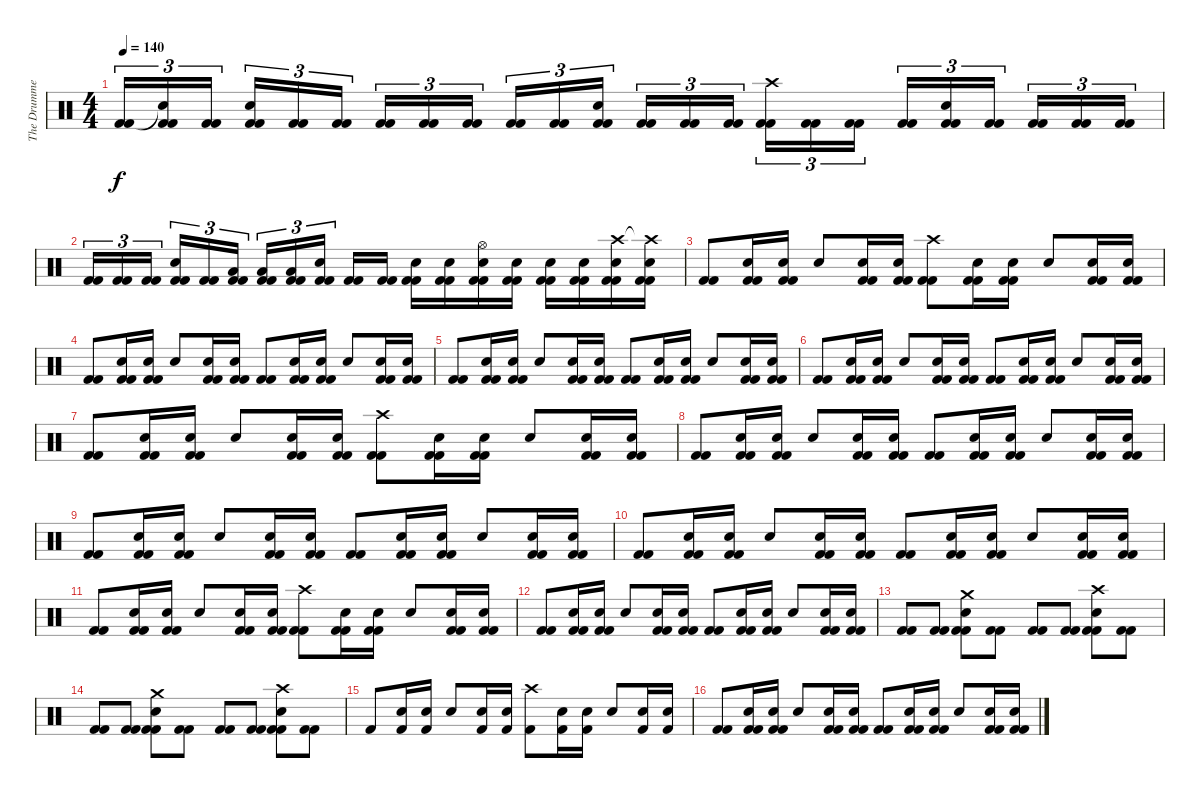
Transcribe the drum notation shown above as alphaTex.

\track ("The Drummer" "The Drumme") {instrument percussion}
\staff {score}
\articulation defaults
\ts (4 4)
\tempo 140
\clef neutral
\ks c
("Kick (hit) 2" "Kick (hit) 2").16{tu (3 2) dy f} ("Snare (hit)"{t} "Kick (hit) 2" "Kick (hit) 2").16{tu (3 2)} ("Kick (hit) 2" "Kick (hit) 2").16{tu (3 2)} ("Electric Snare (hit)" "Kick (hit) 2" "Kick (hit) 2").16{tu (3 2)} ("Kick (hit) 2" "Kick (hit) 2").16{tu (3 2)} ("Kick (hit) 2" "Kick (hit) 2").16{tu (3 2)} ("Kick (hit) 2" "Kick (hit) 2").16{tu (3 2)} ("Kick (hit) 2" "Kick (hit) 2").16{tu (3 2)} ("Kick (hit) 2" "Kick (hit) 2").16{tu (3 2)} ("Kick (hit) 2" "Kick (hit) 2").16{tu (3 2)} ("Kick (hit) 2" "Kick (hit) 2").16{tu (3 2)} ("Electric Snare (hit)" "Kick (hit) 2" "Kick (hit) 2").16{tu (3 2)} ("Kick (hit) 2" "Kick (hit) 2").16{tu (3 2)} ("Kick (hit) 2" "Kick (hit) 2").16{tu (3 2)} ("Kick (hit) 2" "Kick (hit) 2").16{tu (3 2)} ("Crash high (hit)" "Kick (hit) 2" "Kick (hit) 2").16{tu (3 2)} ("Kick (hit) 2" "Kick (hit) 2").16{tu (3 2)} ("Kick (hit) 2" "Kick (hit) 2").16{tu (3 2)} ("Kick (hit) 2" "Kick (hit) 2").16{tu (3 2)} ("Electric Snare (hit)" "Kick (hit) 2" "Kick (hit) 2").16{tu (3 2)} ("Kick (hit) 2" "Kick (hit) 2").16{tu (3 2)} ("Kick (hit) 2" "Kick (hit) 2").16{tu (3 2)} ("Kick (hit) 2" "Kick (hit) 2").16{tu (3 2)} ("Kick (hit) 2" "Kick (hit) 2").16{tu (3 2)} |
("Kick (hit) 2" "Kick (hit) 2").16{tu (3 2)} ("Kick (hit) 2" "Kick (hit) 2").16{tu (3 2)} ("Kick (hit) 2" "Kick (hit) 2").16{tu (3 2)} ("Electric Snare (hit)" "Kick (hit) 2" "Kick (hit) 2").16{tu (3 2)} ("Kick (hit) 2" "Kick (hit) 2").16{tu (3 2)} ("Low Tom (hit)" "Kick (hit) 2" "Kick (hit) 2").16{tu (3 2)} ("Low Tom (hit)" "Kick (hit) 2" "Kick (hit) 2").16{tu (3 2)} ("Low Tom (hit)" "Kick (hit) 2" "Kick (hit) 2").16{tu (3 2)} ("Electric Snare (hit)" "Kick (hit) 2" "Kick (hit) 2").16{tu (3 2)} ("Kick (hit) 2" "Kick (hit) 2").16 ("Kick (hit) 2" "Kick (hit) 2").16 ("Electric Snare (hit)" "Kick (hit) 2" "Kick (hit) 2").16 ("Electric Snare (hit)" "Kick (hit) 2" "Kick (hit) 2").16 ("Hi-Hat (open)" "Electric Snare (hit)" "Kick (hit) 2" "Kick (hit) 2").16 ("Electric Snare (hit)" "Kick (hit) 2" "Kick (hit) 2").16 ("Electric Snare (hit)" "Kick (hit) 2" "Kick (hit) 2").16 ("Electric Snare (hit)" "Kick (hit) 2" "Kick (hit) 2").16 ("Crash high (hit)" "Electric Snare (hit)" "Kick (hit) 2" "Kick (hit) 2").16 ("Crash high (hit)"{t} "Electric Snare (hit)" "Kick (hit) 2" "Kick (hit) 2").16 |
("Kick (hit) 2" "Kick (hit) 2").8 ("Snare (hit) 2" "Kick (hit) 2" "Kick (hit) 2").16 ("Snare (hit) 2" "Kick (hit) 2" "Kick (hit) 2").16 "Snare (hit) 2".8 ("Snare (hit) 2" "Kick (hit) 2" "Kick (hit) 2").16 ("Snare (hit) 2" "Kick (hit) 2" "Kick (hit) 2").16 ("Crash high (hit)" "Kick (hit) 2" "Kick (hit) 2").8 ("Snare (hit) 2" "Kick (hit) 2" "Kick (hit) 2").16 ("Snare (hit) 2" "Kick (hit) 2" "Kick (hit) 2").16 "Snare (hit) 2".8 ("Snare (hit) 2" "Kick (hit) 2" "Kick (hit) 2").16 ("Snare (hit) 2" "Kick (hit) 2" "Kick (hit) 2").16 |
("Kick (hit) 2" "Kick (hit) 2").8 ("Snare (hit) 2" "Kick (hit) 2" "Kick (hit) 2").16 ("Snare (hit) 2" "Kick (hit) 2" "Kick (hit) 2").16 "Snare (hit) 2".8 ("Snare (hit) 2" "Kick (hit) 2" "Kick (hit) 2").16 ("Snare (hit) 2" "Kick (hit) 2" "Kick (hit) 2").16 ("Kick (hit) 2" "Kick (hit) 2").8 ("Snare (hit) 2" "Kick (hit) 2" "Kick (hit) 2").16 ("Snare (hit) 2" "Kick (hit) 2" "Kick (hit) 2").16 "Snare (hit) 2".8 ("Snare (hit) 2" "Kick (hit) 2" "Kick (hit) 2").16 ("Snare (hit) 2" "Kick (hit) 2" "Kick (hit) 2").16 |
("Kick (hit) 2" "Kick (hit) 2").8 ("Snare (hit) 2" "Kick (hit) 2" "Kick (hit) 2").16 ("Snare (hit) 2" "Kick (hit) 2" "Kick (hit) 2").16 "Snare (hit) 2".8 ("Snare (hit) 2" "Kick (hit) 2" "Kick (hit) 2").16 ("Snare (hit) 2" "Kick (hit) 2" "Kick (hit) 2").16 ("Kick (hit) 2" "Kick (hit) 2").8 ("Snare (hit) 2" "Kick (hit) 2" "Kick (hit) 2").16 ("Snare (hit) 2" "Kick (hit) 2" "Kick (hit) 2").16 "Snare (hit) 2".8 ("Snare (hit) 2" "Kick (hit) 2" "Kick (hit) 2").16 ("Snare (hit) 2" "Kick (hit) 2" "Kick (hit) 2").16 |
("Kick (hit) 2" "Kick (hit) 2").8 ("Snare (hit) 2" "Kick (hit) 2" "Kick (hit) 2").16 ("Snare (hit) 2" "Kick (hit) 2" "Kick (hit) 2").16 "Snare (hit) 2".8 ("Snare (hit) 2" "Kick (hit) 2" "Kick (hit) 2").16 ("Snare (hit) 2" "Kick (hit) 2" "Kick (hit) 2").16 ("Kick (hit) 2" "Kick (hit) 2").8 ("Snare (hit) 2" "Kick (hit) 2" "Kick (hit) 2").16 ("Snare (hit) 2" "Kick (hit) 2" "Kick (hit) 2").16 "Snare (hit) 2".8 ("Snare (hit) 2" "Kick (hit) 2" "Kick (hit) 2").16 ("Snare (hit) 2" "Kick (hit) 2" "Kick (hit) 2").16 |
("Kick (hit) 2" "Kick (hit) 2").8 ("Snare (hit) 2" "Kick (hit) 2" "Kick (hit) 2").16 ("Snare (hit) 2" "Kick (hit) 2" "Kick (hit) 2").16 "Snare (hit) 2".8 ("Snare (hit) 2" "Kick (hit) 2" "Kick (hit) 2").16 ("Snare (hit) 2" "Kick (hit) 2" "Kick (hit) 2").16 ("Crash high (hit)" "Kick (hit) 2" "Kick (hit) 2").8 ("Snare (hit) 2" "Kick (hit) 2" "Kick (hit) 2").16 ("Snare (hit) 2" "Kick (hit) 2" "Kick (hit) 2").16 "Snare (hit) 2".8 ("Snare (hit) 2" "Kick (hit) 2" "Kick (hit) 2").16 ("Snare (hit) 2" "Kick (hit) 2" "Kick (hit) 2").16 |
("Kick (hit) 2" "Kick (hit) 2").8 ("Snare (hit) 2" "Kick (hit) 2" "Kick (hit) 2").16 ("Snare (hit) 2" "Kick (hit) 2" "Kick (hit) 2").16 "Snare (hit) 2".8 ("Snare (hit) 2" "Kick (hit) 2" "Kick (hit) 2").16 ("Snare (hit) 2" "Kick (hit) 2" "Kick (hit) 2").16 ("Kick (hit) 2" "Kick (hit) 2").8 ("Snare (hit) 2" "Kick (hit) 2" "Kick (hit) 2").16 ("Snare (hit) 2" "Kick (hit) 2" "Kick (hit) 2").16 "Snare (hit) 2".8 ("Snare (hit) 2" "Kick (hit) 2" "Kick (hit) 2").16 ("Snare (hit) 2" "Kick (hit) 2" "Kick (hit) 2").16 |
("Kick (hit) 2" "Kick (hit) 2").8 ("Snare (hit) 2" "Kick (hit) 2" "Kick (hit) 2").16 ("Snare (hit) 2" "Kick (hit) 2" "Kick (hit) 2").16 "Snare (hit) 2".8 ("Snare (hit) 2" "Kick (hit) 2" "Kick (hit) 2").16 ("Snare (hit) 2" "Kick (hit) 2" "Kick (hit) 2").16 ("Kick (hit) 2" "Kick (hit) 2").8 ("Snare (hit) 2" "Kick (hit) 2" "Kick (hit) 2").16 ("Snare (hit) 2" "Kick (hit) 2" "Kick (hit) 2").16 "Snare (hit) 2".8 ("Snare (hit) 2" "Kick (hit) 2" "Kick (hit) 2").16 ("Snare (hit) 2" "Kick (hit) 2" "Kick (hit) 2").16 |
("Kick (hit) 2" "Kick (hit) 2").8 ("Snare (hit) 2" "Kick (hit) 2" "Kick (hit) 2").16 ("Snare (hit) 2" "Kick (hit) 2" "Kick (hit) 2").16 "Snare (hit) 2".8 ("Snare (hit) 2" "Kick (hit) 2" "Kick (hit) 2").16 ("Snare (hit) 2" "Kick (hit) 2" "Kick (hit) 2").16 ("Kick (hit) 2" "Kick (hit) 2").8 ("Snare (hit) 2" "Kick (hit) 2" "Kick (hit) 2").16 ("Snare (hit) 2" "Kick (hit) 2" "Kick (hit) 2").16 "Snare (hit) 2".8 ("Snare (hit) 2" "Kick (hit) 2" "Kick (hit) 2").16 ("Snare (hit) 2" "Kick (hit) 2" "Kick (hit) 2").16 |
("Kick (hit) 2" "Kick (hit) 2").8 ("Snare (hit) 2" "Kick (hit) 2" "Kick (hit) 2").16 ("Snare (hit) 2" "Kick (hit) 2" "Kick (hit) 2").16 "Snare (hit) 2".8 ("Snare (hit) 2" "Kick (hit) 2" "Kick (hit) 2").16 ("Snare (hit) 2" "Kick (hit) 2" "Kick (hit) 2").16 ("Crash high (hit)" "Kick (hit) 2" "Kick (hit) 2").8 ("Snare (hit) 2" "Kick (hit) 2" "Kick (hit) 2").16 ("Snare (hit) 2" "Kick (hit) 2" "Kick (hit) 2").16 "Snare (hit) 2".8 ("Snare (hit) 2" "Kick (hit) 2" "Kick (hit) 2").16 ("Snare (hit) 2" "Kick (hit) 2" "Kick (hit) 2").16 |
("Kick (hit) 2" "Kick (hit) 2").8 ("Snare (hit) 2" "Kick (hit) 2" "Kick (hit) 2").16 ("Snare (hit) 2" "Kick (hit) 2" "Kick (hit) 2").16 "Snare (hit) 2".8 ("Snare (hit) 2" "Kick (hit) 2" "Kick (hit) 2").16 ("Snare (hit) 2" "Kick (hit) 2" "Kick (hit) 2").16 ("Kick (hit) 2" "Kick (hit) 2").8 ("Snare (hit) 2" "Kick (hit) 2" "Kick (hit) 2").16 ("Snare (hit) 2" "Kick (hit) 2" "Kick (hit) 2").16 "Snare (hit) 2".8 ("Snare (hit) 2" "Kick (hit) 2" "Kick (hit) 2").16 ("Snare (hit) 2" "Kick (hit) 2" "Kick (hit) 2").16 |
("Kick (hit) 2" "Kick (hit) 2").8 ("Kick (hit) 2" "Kick (hit) 2").8 ("Crash medium (hit)" "Electric Snare (hit)" "Kick (hit) 2" "Kick (hit) 2").8 ("Kick (hit) 2" "Kick (hit) 2").8 ("Kick (hit) 2" "Kick (hit) 2").8 ("Kick (hit) 2" "Kick (hit) 2").8 ("Crash high (hit)" "Electric Snare (hit)" "Kick (hit) 2" "Kick (hit) 2").8 ("Kick (hit) 2" "Kick (hit) 2").8 |
("Kick (hit) 2" "Kick (hit) 2").8 ("Kick (hit) 2" "Kick (hit) 2").8 ("Crash medium (hit)" "Electric Snare (hit)" "Kick (hit) 2" "Kick (hit) 2").8 ("Kick (hit) 2" "Kick (hit) 2").8 ("Kick (hit) 2" "Kick (hit) 2").8 ("Kick (hit) 2" "Kick (hit) 2").8 ("Crash high (hit)" "Electric Snare (hit)" "Kick (hit) 2" "Kick (hit) 2").8 ("Kick (hit) 2" "Kick (hit) 2").8 |
"Kick (hit) 2".8 ("Kick (hit) 2" "Snare (hit) 2").16 ("Kick (hit) 2" "Snare (hit) 2").16 "Snare (hit) 2".8 ("Kick (hit) 2" "Snare (hit) 2").16 ("Kick (hit) 2" "Snare (hit) 2").16 ("Kick (hit) 2" "Crash high (hit)").8 ("Kick (hit) 2" "Snare (hit) 2").16 ("Kick (hit) 2" "Snare (hit) 2").16 "Snare (hit) 2".8 ("Kick (hit) 2" "Snare (hit) 2").16 ("Kick (hit) 2" "Snare (hit) 2").16 |
("Kick (hit) 2" "Kick (hit) 2").8 ("Snare (hit) 2" "Kick (hit) 2" "Kick (hit) 2").16 ("Snare (hit) 2" "Kick (hit) 2" "Kick (hit) 2").16 "Snare (hit) 2".8 ("Snare (hit) 2" "Kick (hit) 2" "Kick (hit) 2").16 ("Snare (hit) 2" "Kick (hit) 2" "Kick (hit) 2").16 ("Kick (hit) 2" "Kick (hit) 2").8 ("Snare (hit) 2" "Kick (hit) 2" "Kick (hit) 2").16 ("Snare (hit) 2" "Kick (hit) 2" "Kick (hit) 2").16 "Snare (hit) 2".8 ("Snare (hit) 2" "Kick (hit) 2" "Kick (hit) 2").16 ("Snare (hit) 2" "Kick (hit) 2" "Kick (hit) 2").16
